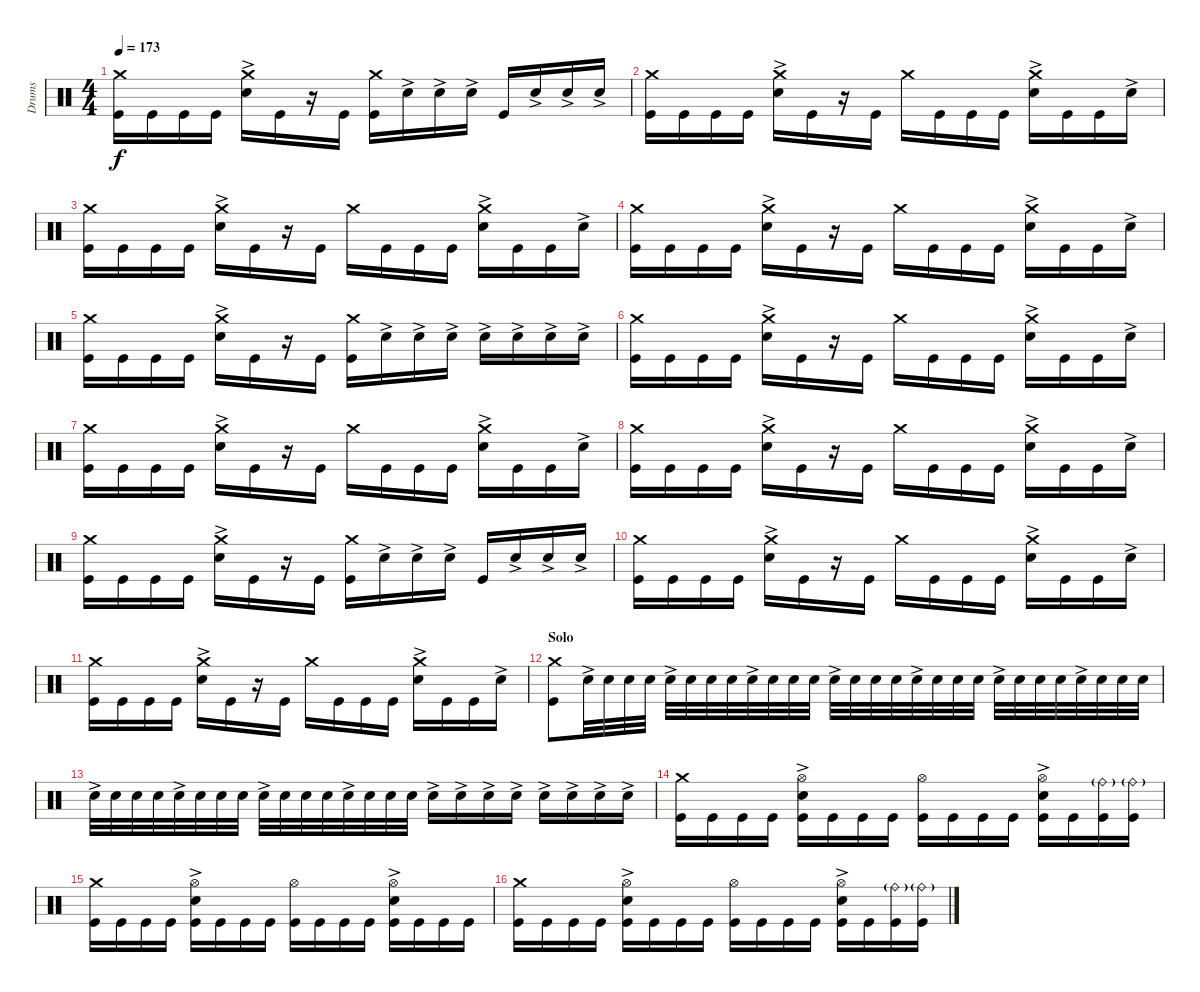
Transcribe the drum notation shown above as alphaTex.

\track ("Drums" "Drums") {instrument percussion}
\staff {score}
\articulation defaults
\ts (4 4)
\tempo 173
\clef neutral
\ks c
("Crash medium (hit)" "Kick (hit)").16{dy f} "Kick (hit)".16 "Kick (hit)".16 "Kick (hit)".16 ("Crash medium (hit)" "Snare (hit) 2"{ac}).16 "Kick (hit)".16 r.16 "Kick (hit)".16 ("Kick (hit)" "Crash medium (hit)").16 "Snare (hit) 2"{ac}.16 "Snare (hit) 2"{ac}.16 "Snare (hit) 2"{ac}.16 "Kick (hit)".16 "Snare (hit) 2"{ac}.16 "Snare (hit) 2"{ac}.16 "Snare (hit) 2"{ac}.16 |
("Crash medium (hit)" "Kick (hit)").16 "Kick (hit)".16 "Kick (hit)".16 "Kick (hit)".16 ("Crash medium (hit)" "Snare (hit) 2"{ac}).16 "Kick (hit)".16 r.16 "Kick (hit)".16 "Crash medium (hit)".16 "Kick (hit)".16 "Kick (hit)".16 "Kick (hit)".16 ("Crash medium (hit)" "Snare (hit) 2"{ac}).16 "Kick (hit)".16 "Kick (hit)".16 "Snare (hit) 2"{ac}.16 |
("Crash medium (hit)" "Kick (hit)").16 "Kick (hit)".16 "Kick (hit)".16 "Kick (hit)".16 ("Crash medium (hit)" "Snare (hit) 2"{ac}).16 "Kick (hit)".16 r.16 "Kick (hit)".16 "Crash medium (hit)".16 "Kick (hit)".16 "Kick (hit)".16 "Kick (hit)".16 ("Crash medium (hit)" "Snare (hit) 2"{ac}).16 "Kick (hit)".16 "Kick (hit)".16 "Snare (hit) 2"{ac}.16 |
("Crash medium (hit)" "Kick (hit)").16 "Kick (hit)".16 "Kick (hit)".16 "Kick (hit)".16 ("Crash medium (hit)" "Snare (hit) 2"{ac}).16 "Kick (hit)".16 r.16 "Kick (hit)".16 "Crash medium (hit)".16 "Kick (hit)".16 "Kick (hit)".16 "Kick (hit)".16 ("Crash medium (hit)" "Snare (hit) 2"{ac}).16 "Kick (hit)".16 "Kick (hit)".16 "Snare (hit) 2"{ac}.16 |
("Crash medium (hit)" "Kick (hit)").16 "Kick (hit)".16 "Kick (hit)".16 "Kick (hit)".16 ("Crash medium (hit)" "Snare (hit) 2"{ac}).16 "Kick (hit)".16 r.16 "Kick (hit)".16 ("Kick (hit)" "Crash medium (hit)").16 "Snare (hit) 2"{ac}.16 "Snare (hit) 2"{ac}.16 "Snare (hit) 2"{ac}.16 "Snare (hit) 2"{ac}.16 "Snare (hit) 2"{ac}.16 "Snare (hit) 2"{ac}.16 "Snare (hit) 2"{ac}.16 |
("Crash medium (hit)" "Kick (hit)").16 "Kick (hit)".16 "Kick (hit)".16 "Kick (hit)".16 ("Crash medium (hit)" "Snare (hit) 2"{ac}).16 "Kick (hit)".16 r.16 "Kick (hit)".16 "Crash medium (hit)".16 "Kick (hit)".16 "Kick (hit)".16 "Kick (hit)".16 ("Crash medium (hit)" "Snare (hit) 2"{ac}).16 "Kick (hit)".16 "Kick (hit)".16 "Snare (hit) 2"{ac}.16 |
("Crash medium (hit)" "Kick (hit)").16 "Kick (hit)".16 "Kick (hit)".16 "Kick (hit)".16 ("Crash medium (hit)" "Snare (hit) 2"{ac}).16 "Kick (hit)".16 r.16 "Kick (hit)".16 "Crash medium (hit)".16 "Kick (hit)".16 "Kick (hit)".16 "Kick (hit)".16 ("Crash medium (hit)" "Snare (hit) 2"{ac}).16 "Kick (hit)".16 "Kick (hit)".16 "Snare (hit) 2"{ac}.16 |
("Crash medium (hit)" "Kick (hit)").16 "Kick (hit)".16 "Kick (hit)".16 "Kick (hit)".16 ("Crash medium (hit)" "Snare (hit) 2"{ac}).16 "Kick (hit)".16 r.16 "Kick (hit)".16 "Crash medium (hit)".16 "Kick (hit)".16 "Kick (hit)".16 "Kick (hit)".16 ("Crash medium (hit)" "Snare (hit) 2"{ac}).16 "Kick (hit)".16 "Kick (hit)".16 "Snare (hit) 2"{ac}.16 |
("Crash medium (hit)" "Kick (hit)").16 "Kick (hit)".16 "Kick (hit)".16 "Kick (hit)".16 ("Crash medium (hit)" "Snare (hit) 2"{ac}).16 "Kick (hit)".16 r.16 "Kick (hit)".16 ("Kick (hit)" "Crash medium (hit)").16 "Snare (hit) 2"{ac}.16 "Snare (hit) 2"{ac}.16 "Snare (hit) 2"{ac}.16 "Kick (hit)".16 "Snare (hit) 2"{ac}.16 "Snare (hit) 2"{ac}.16 "Snare (hit) 2"{ac}.16 |
("Crash medium (hit)" "Kick (hit)").16 "Kick (hit)".16 "Kick (hit)".16 "Kick (hit)".16 ("Crash medium (hit)" "Snare (hit) 2"{ac}).16 "Kick (hit)".16 r.16 "Kick (hit)".16 "Crash medium (hit)".16 "Kick (hit)".16 "Kick (hit)".16 "Kick (hit)".16 ("Crash medium (hit)" "Snare (hit) 2"{ac}).16 "Kick (hit)".16 "Kick (hit)".16 "Snare (hit) 2"{ac}.16 |
("Crash medium (hit)" "Kick (hit)").16 "Kick (hit)".16 "Kick (hit)".16 "Kick (hit)".16 ("Crash medium (hit)" "Snare (hit) 2"{ac}).16 "Kick (hit)".16 r.16 "Kick (hit)".16 "Crash medium (hit)".16 "Kick (hit)".16 "Kick (hit)".16 "Kick (hit)".16 ("Crash medium (hit)" "Snare (hit) 2"{ac}).16 "Kick (hit)".16 "Kick (hit)".16 "Snare (hit) 2"{ac}.16 |
\section ("" "Solo")
("Kick (hit)" "Crash medium (hit)").8 "Snare (hit) 2"{ac}.32 "Snare (hit) 2".32 "Snare (hit) 2".32 "Snare (hit) 2".32 "Snare (hit) 2"{ac}.32 "Snare (hit) 2".32 "Snare (hit) 2".32 "Snare (hit) 2".32 "Snare (hit) 2"{ac}.32 "Snare (hit) 2".32 "Snare (hit) 2".32 "Snare (hit) 2".32 "Snare (hit) 2"{ac}.32 "Snare (hit) 2".32 "Snare (hit) 2".32 "Snare (hit) 2".32 "Snare (hit) 2"{ac}.32 "Snare (hit) 2".32 "Snare (hit) 2".32 "Snare (hit) 2".32 "Snare (hit) 2"{ac}.32 "Snare (hit) 2".32 "Snare (hit) 2".32 "Snare (hit) 2".32 "Snare (hit) 2"{ac}.32 "Snare (hit) 2".32 "Snare (hit) 2".32 "Snare (hit) 2".32 |
"Snare (hit) 2"{ac}.32 "Snare (hit) 2".32 "Snare (hit) 2".32 "Snare (hit) 2".32 "Snare (hit) 2"{ac}.32 "Snare (hit) 2".32 "Snare (hit) 2".32 "Snare (hit) 2".32 "Snare (hit) 2"{ac}.32 "Snare (hit) 2".32 "Snare (hit) 2".32 "Snare (hit) 2".32 "Snare (hit) 2"{ac}.32 "Snare (hit) 2".32 "Snare (hit) 2".32 "Snare (hit) 2".32 "Snare (hit) 2"{ac}.16 "Snare (hit) 2"{ac}.16 "Snare (hit) 2"{ac}.16 "Snare (hit) 2"{ac}.16 "Snare (hit) 2"{ac}.16 "Snare (hit) 2"{ac}.16 "Snare (hit) 2"{ac}.16 "Snare (hit) 2"{ac}.16 |
("Kick (hit)" "Crash medium (hit)").16 "Kick (hit)".16 "Kick (hit)".16 "Kick (hit)".16 ("Kick (hit)" "Hi-Hat (open)" "Snare (hit) 2"{ac}).16 "Kick (hit)".16 "Kick (hit)".16 "Kick (hit)".16 ("Kick (hit)" "Hi-Hat (open)").16 "Kick (hit)".16 "Kick (hit)".16 "Kick (hit)".16 ("Kick (hit)" "Hi-Hat (open)" "Snare (hit) 2"{ac}).16 "Kick (hit)".16 ("Kick (hit)" "Ride (bell)"{g}).16 ("Kick (hit)" "Ride (bell)"{g}).16 |
("Kick (hit)" "Crash medium (hit)").16 "Kick (hit)".16 "Kick (hit)".16 "Kick (hit)".16 ("Kick (hit)" "Hi-Hat (open)" "Snare (hit) 2"{ac}).16 "Kick (hit)".16 "Kick (hit)".16 "Kick (hit)".16 ("Kick (hit)" "Hi-Hat (open)").16 "Kick (hit)".16 "Kick (hit)".16 "Kick (hit)".16 ("Kick (hit)" "Hi-Hat (open)" "Snare (hit) 2"{ac}).16 "Kick (hit)".16 "Kick (hit)".16 "Kick (hit)".16 |
("Kick (hit)" "Crash medium (hit)").16 "Kick (hit)".16 "Kick (hit)".16 "Kick (hit)".16 ("Kick (hit)" "Hi-Hat (open)" "Snare (hit) 2"{ac}).16 "Kick (hit)".16 "Kick (hit)".16 "Kick (hit)".16 ("Kick (hit)" "Hi-Hat (open)").16 "Kick (hit)".16 "Kick (hit)".16 "Kick (hit)".16 ("Kick (hit)" "Hi-Hat (open)" "Snare (hit) 2"{ac}).16 "Kick (hit)".16 ("Kick (hit)" "Ride (bell)"{g}).16 ("Kick (hit)" "Ride (bell)"{g}).16
